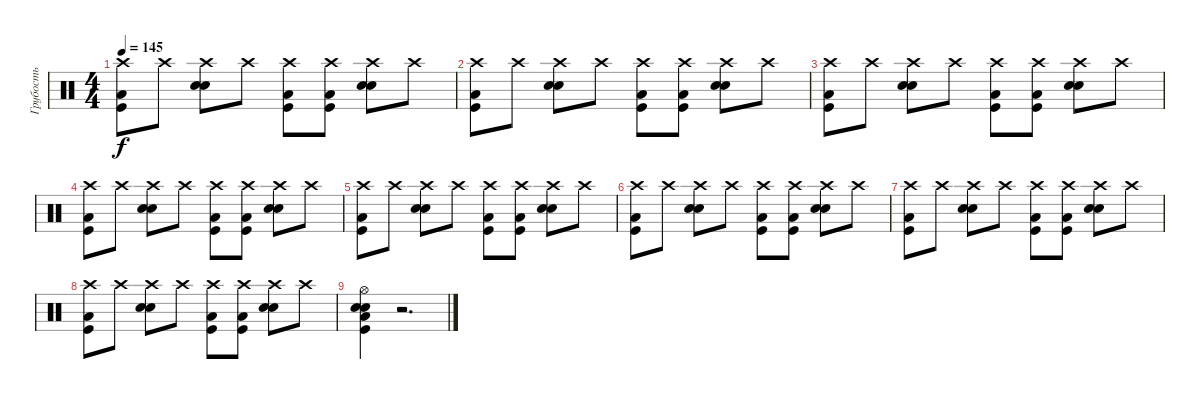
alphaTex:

\track ("Грубость" "Грубость") {instrument percussion}
\staff {score}
\articulation defaults
\ts (4 4)
\tempo 145
\clef neutral
\ks c
("Crash high (hit)" "Low Tom (hit)" "Kick (hit)").8{dy f} "Crash high (hit)".8 ("Crash high (hit)" "Electric Snare (hit)" "Snare (hit) 2").8 "Crash high (hit)".8 ("Crash high (hit)" "Low Tom (hit)" "Kick (hit)").8 ("Crash high (hit)" "Low Tom (hit)" "Kick (hit)").8 ("Crash high (hit)" "Electric Snare (hit)" "Snare (hit) 2").8 "Crash high (hit)".8 |
("Crash high (hit)" "Low Tom (hit)" "Kick (hit)").8 "Crash high (hit)".8 ("Crash high (hit)" "Electric Snare (hit)" "Snare (hit) 2").8 "Crash high (hit)".8 ("Crash high (hit)" "Low Tom (hit)" "Kick (hit)").8 ("Crash high (hit)" "Low Tom (hit)" "Kick (hit)").8 ("Crash high (hit)" "Electric Snare (hit)" "Snare (hit) 2").8 "Crash high (hit)".8 |
("Crash high (hit)" "Low Tom (hit)" "Kick (hit)").8 "Crash high (hit)".8 ("Crash high (hit)" "Electric Snare (hit)" "Snare (hit) 2").8 "Crash high (hit)".8 ("Crash high (hit)" "Low Tom (hit)" "Kick (hit)").8 ("Crash high (hit)" "Low Tom (hit)" "Kick (hit)").8 ("Crash high (hit)" "Electric Snare (hit)" "Snare (hit) 2").8 "Crash high (hit)".8 |
("Crash high (hit)" "Low Tom (hit)" "Kick (hit)").8 "Crash high (hit)".8 ("Crash high (hit)" "Electric Snare (hit)" "Snare (hit) 2").8 "Crash high (hit)".8 ("Crash high (hit)" "Low Tom (hit)" "Kick (hit)").8 ("Crash high (hit)" "Low Tom (hit)" "Kick (hit)").8 ("Crash high (hit)" "Electric Snare (hit)" "Snare (hit) 2").8 "Crash high (hit)".8 |
("Crash high (hit)" "Low Tom (hit)" "Kick (hit)").8 "Crash high (hit)".8 ("Crash high (hit)" "Electric Snare (hit)" "Snare (hit) 2").8 "Crash high (hit)".8 ("Crash high (hit)" "Low Tom (hit)" "Kick (hit)").8 ("Crash high (hit)" "Low Tom (hit)" "Kick (hit)").8 ("Crash high (hit)" "Electric Snare (hit)" "Snare (hit) 2").8 "Crash high (hit)".8 |
("Crash high (hit)" "Low Tom (hit)" "Kick (hit)").8 "Crash high (hit)".8 ("Crash high (hit)" "Electric Snare (hit)" "Snare (hit) 2").8 "Crash high (hit)".8 ("Crash high (hit)" "Low Tom (hit)" "Kick (hit)").8 ("Crash high (hit)" "Low Tom (hit)" "Kick (hit)").8 ("Crash high (hit)" "Electric Snare (hit)" "Snare (hit) 2").8 "Crash high (hit)".8 |
("Crash high (hit)" "Low Tom (hit)" "Kick (hit)").8 "Crash high (hit)".8 ("Crash high (hit)" "Electric Snare (hit)" "Snare (hit) 2").8 "Crash high (hit)".8 ("Crash high (hit)" "Low Tom (hit)" "Kick (hit)").8 ("Crash high (hit)" "Low Tom (hit)" "Kick (hit)").8 ("Crash high (hit)" "Electric Snare (hit)" "Snare (hit) 2").8 "Crash high (hit)".8 |
("Crash high (hit)" "Low Tom (hit)" "Kick (hit)").8 "Crash high (hit)".8 ("Crash high (hit)" "Electric Snare (hit)" "Snare (hit) 2").8 "Crash high (hit)".8 ("Crash high (hit)" "Low Tom (hit)" "Kick (hit)").8 ("Crash high (hit)" "Low Tom (hit)" "Kick (hit)").8 ("Crash high (hit)" "Electric Snare (hit)" "Snare (hit) 2").8 "Crash high (hit)".8 |
("Hi-Hat (open)" "Electric Snare (hit)" "Snare (hit) 2" "Low Tom (hit)" "Kick (hit)").4 r.2{d}
